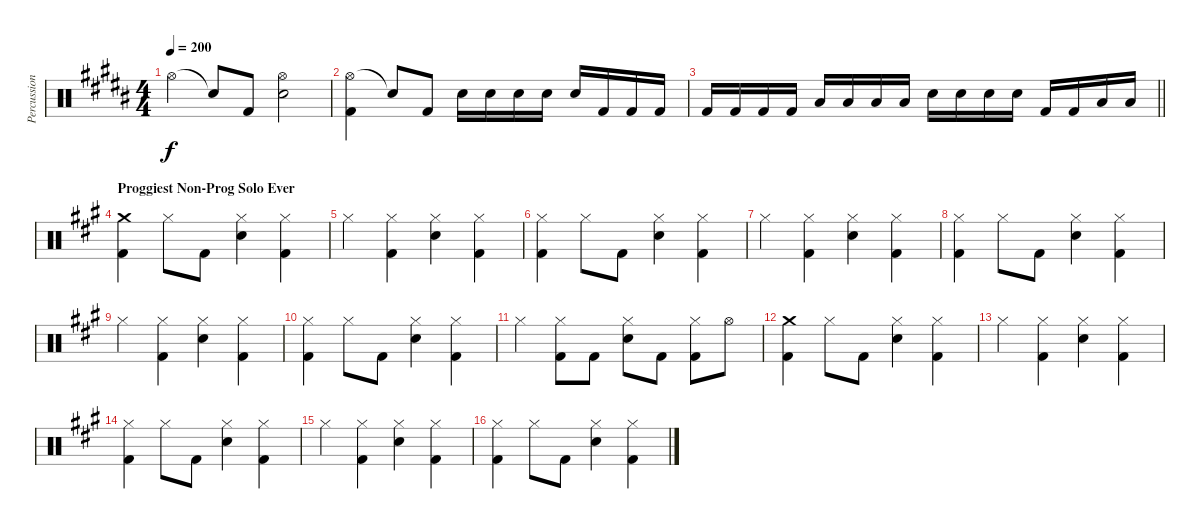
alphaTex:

\track ("Percussion" "Percussion") {instrument percussion}
\staff {score}
\articulation defaults
\ts (4 4)
\tempo 200
\clef neutral
\ks b "Hi-Hat (open)".4{dy f} "Snare (hit)"{t}.8 "Kick (hit) 2".8
("Hi-Hat (open)" "Electric Snare (hit)").2 |
("Hi-Hat (open)" "Kick (hit) 2").4 "Snare (hit)"{t}.8 "Kick (hit) 2".8 "Electric Snare (hit)".16 "Electric Snare (hit)".16 "Electric Snare (hit)".16 "Electric Snare (hit)".16 "Electric Snare (hit)".16 "Kick (hit) 2".16 "Kick (hit) 2".16 "Kick (hit) 2".16 |
\barLineRight lightlight "Kick (hit) 2".16 "Kick (hit) 2".16 "Kick (hit) 2".16 "Kick (hit) 2".16 "Low Floor Tom (hit)".16 "Low Floor Tom (hit)".16 "Low Floor Tom (hit)".16 "Low Floor Tom (hit)".16 "Electric Snare (hit)".16 "Electric Snare (hit)".16 "Electric Snare (hit)".16 "Electric Snare (hit)".16 "Kick (hit) 2".16 "Kick (hit) 2".16 "Low Floor Tom (hit)".16 "Low Floor Tom (hit)".16
|
\section ("" "Proggiest Non-Prog Solo Ever")
\ks a
("Crash medium (hit)" "Kick (hit) 2").4 "Hi-Hat (closed)".8 "Kick (hit) 2".8 ("Hi-Hat (closed)" "Electric Snare (hit)").4 ("Hi-Hat (closed)" "Kick (hit) 2").4 |
"Hi-Hat (closed)".4 ("Hi-Hat (closed)" "Kick (hit) 2").4 ("Hi-Hat (closed)" "Electric Snare (hit)").4 ("Hi-Hat (closed)" "Kick (hit) 2").4 |
("Hi-Hat (closed)" "Kick (hit) 2").4 "Hi-Hat (closed)".8 "Kick (hit) 2".8 ("Hi-Hat (closed)" "Electric Snare (hit)").4 ("Hi-Hat (closed)" "Kick (hit) 2").4 |
"Hi-Hat (closed)".4 ("Hi-Hat (closed)" "Kick (hit) 2").4 ("Hi-Hat (closed)" "Electric Snare (hit)").4 ("Hi-Hat (closed)" "Kick (hit) 2").4 |
("Hi-Hat (closed)" "Kick (hit) 2").4 "Hi-Hat (closed)".8 "Kick (hit) 2".8 ("Hi-Hat (closed)" "Electric Snare (hit)").4 ("Hi-Hat (closed)" "Kick (hit) 2").4 |
"Hi-Hat (closed)".4 ("Hi-Hat (closed)" "Kick (hit) 2").4 ("Hi-Hat (closed)" "Electric Snare (hit)").4 ("Hi-Hat (closed)" "Kick (hit) 2").4 |
("Hi-Hat (closed)" "Kick (hit) 2").4 "Hi-Hat (closed)".8 "Kick (hit) 2".8 ("Hi-Hat (closed)" "Electric Snare (hit)").4 ("Hi-Hat (closed)" "Kick (hit) 2").4 |
"Hi-Hat (closed)".4 ("Hi-Hat (closed)" "Kick (hit) 2").8 "Kick (hit) 2".8 ("Hi-Hat (closed)" "Electric Snare (hit)").8 "Kick (hit) 2".8 ("Hi-Hat (closed)" "Kick (hit) 2").8 "Hi-Hat (open)".8 |
("Crash medium (hit)" "Kick (hit) 2").4 "Hi-Hat (closed)".8 "Kick (hit) 2".8 ("Hi-Hat (closed)" "Electric Snare (hit)").4 ("Hi-Hat (closed)" "Kick (hit) 2").4 |
"Hi-Hat (closed)".4 ("Hi-Hat (closed)" "Kick (hit) 2").4 ("Hi-Hat (closed)" "Electric Snare (hit)").4 ("Hi-Hat (closed)" "Kick (hit) 2").4 |
("Hi-Hat (closed)" "Kick (hit) 2").4 "Hi-Hat (closed)".8 "Kick (hit) 2".8 ("Hi-Hat (closed)" "Electric Snare (hit)").4 ("Hi-Hat (closed)" "Kick (hit) 2").4 |
"Hi-Hat (closed)".4 ("Hi-Hat (closed)" "Kick (hit) 2").4 ("Hi-Hat (closed)" "Electric Snare (hit)").4 ("Hi-Hat (closed)" "Kick (hit) 2").4 |
("Hi-Hat (closed)" "Kick (hit) 2").4 "Hi-Hat (closed)".8 "Kick (hit) 2".8 ("Hi-Hat (closed)" "Electric Snare (hit)").4 ("Hi-Hat (closed)" "Kick (hit) 2").4
